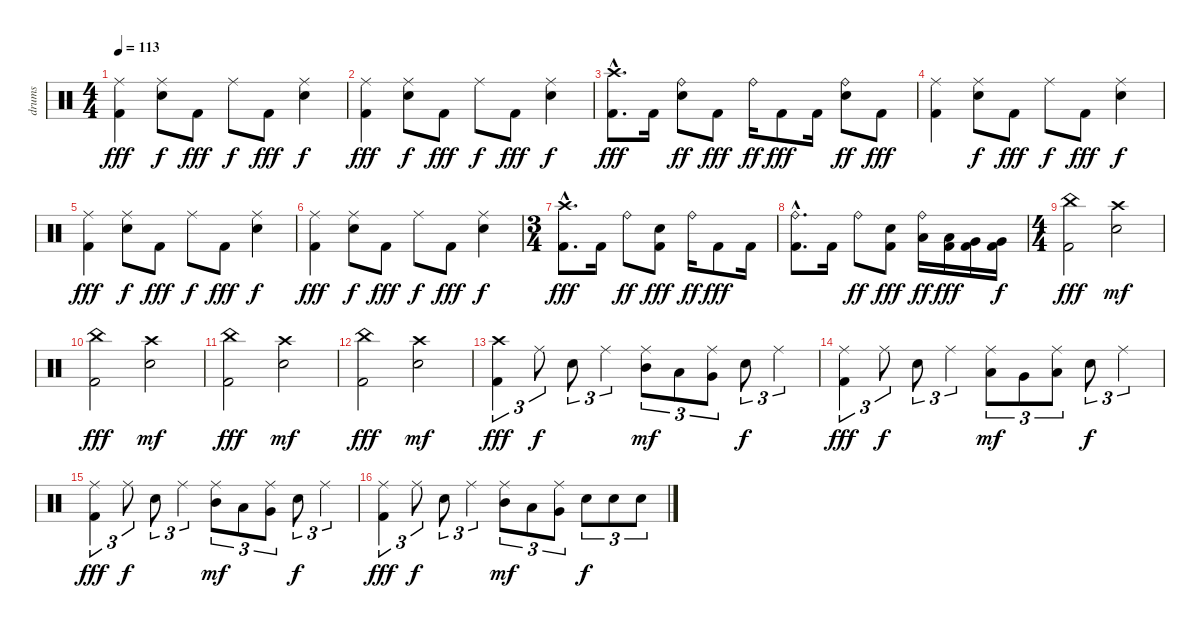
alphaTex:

\track ("drums" "drums") {instrument percussion}
\staff {score}
\articulation defaults
\ts (4 4)
\tempo 113
\clef neutral
\ks c
("Ride (middle)" "Kick (hit) 2").4{dy fff} ("Ride (middle)" "Electric Snare (hit)").8{dy f} "Kick (hit) 2".8{dy fff} "Ride (middle)".8{dy f} "Kick (hit) 2".8{dy fff} ("Ride (middle)" "Electric Snare (hit)").4{dy f} |
("Ride (middle)" "Kick (hit) 2").4{dy fff} ("Ride (middle)" "Electric Snare (hit)").8{dy f} "Kick (hit) 2".8{dy fff} "Ride (middle)".8{dy f} "Kick (hit) 2".8{dy fff} ("Ride (middle)" "Electric Snare (hit)").4{dy f} |
("Crash high (hit)"{hac} "Kick (hit) 2"{hac}).8{d dy fff} "Kick (hit) 2".16 ("Ride (bell)" "Electric Snare (hit)").8{dy ff} "Kick (hit) 2".8{dy fff} "Ride (bell)".16{dy ff} "Kick (hit) 2".8{dy fff} "Kick (hit) 2".16 ("Ride (bell)" "Electric Snare (hit)").8{dy ff} "Kick (hit) 2".8{dy fff} |
("Ride (middle)" "Kick (hit) 2").4 ("Ride (middle)" "Electric Snare (hit)").8{dy f} "Kick (hit) 2".8{dy fff} "Ride (middle)".8{dy f} "Kick (hit) 2".8{dy fff} ("Ride (middle)" "Electric Snare (hit)").4{dy f} |
("Ride (middle)" "Kick (hit) 2").4{dy fff} ("Ride (middle)" "Electric Snare (hit)").8{dy f} "Kick (hit) 2".8{dy fff} "Ride (middle)".8{dy f} "Kick (hit) 2".8{dy fff} ("Ride (middle)" "Electric Snare (hit)").4{dy f} |
("Ride (middle)" "Kick (hit) 2").4{dy fff} ("Ride (middle)" "Electric Snare (hit)").8{dy f} "Kick (hit) 2".8{dy fff} "Ride (middle)".8{dy f} "Kick (hit) 2".8{dy fff} ("Ride (middle)" "Electric Snare (hit)").4{dy f} |
\ts (3 4)
("Crash high (hit)"{hac} "Kick (hit) 2"{hac}).8{d dy fff} "Kick (hit) 2".16 "Ride (bell)".8{dy ff} ("Electric Snare (hit)" "Kick (hit) 2").8{dy fff} "Ride (bell)".16{dy ff} "Kick (hit) 2".8{dy fff} "Kick (hit) 2".16 |
("Ride (bell)"{hac} "Kick (hit) 2"{hac}).8{d} "Kick (hit) 2".16 "Ride (bell)".8{dy ff} ("Electric Snare (hit)" "Kick (hit) 2").8{dy fff} ("Ride (bell)" "Low Tom (hit)").16{dy ff} ("Low Tom (hit)" "Kick (hit) 2").16{dy fff} ("Very Low Tom (hit)" "Kick (hit) 2").16 ("Very Low Tom (hit)" "Kick (hit) 2").16{dy f} |
\ts (4 4)
("China (hit)" "Kick (hit) 2").2{dy fff} ("Crash high (hit)" "Electric Snare (hit)").2{dy mf} |
("China (hit)" "Kick (hit) 2").2{dy fff} ("Crash high (hit)" "Electric Snare (hit)").2{dy mf} |
("China (hit)" "Kick (hit) 2").2{dy fff} ("Crash high (hit)" "Electric Snare (hit)").2{dy mf} |
("China (hit)" "Kick (hit) 2").2{dy fff} ("Crash high (hit)" "Electric Snare (hit)").2{dy mf} |
("Crash high (hit)" "Kick (hit) 2").4{tu (3 2) dy fff} "Ride (middle)".8{tu (3 2) dy f} "Electric Snare (hit)".8{tu (3 2)} "Ride (middle)".4{tu (3 2)} ("Ride (middle)" "Mid Tom (hit)").8{tu (3 2) dy mf} "Low Tom (hit)".8{tu (3 2)} ("Ride (middle)" "Very Low Tom (hit)").8{tu (3 2)} "Electric Snare (hit)".8{tu (3 2) dy f} "Ride (middle)".4{tu (3 2)} |
("Ride (middle)" "Kick (hit) 2").4{tu (3 2) dy fff} "Ride (middle)".8{tu (3 2) dy f} "Electric Snare (hit)".8{tu (3 2)} "Ride (middle)".4{tu (3 2)} ("Ride (middle)" "Low Tom (hit)").8{tu (3 2) dy mf} "Very Low Tom (hit)".8{tu (3 2)} ("Ride (middle)" "Low Floor Tom (hit)").8{tu (3 2)} "Electric Snare (hit)".8{tu (3 2) dy f} "Ride (middle)".4{tu (3 2)} |
("Ride (middle)" "Kick (hit) 2").4{tu (3 2) dy fff} "Ride (middle)".8{tu (3 2) dy f} "Electric Snare (hit)".8{tu (3 2)} "Ride (middle)".4{tu (3 2)} ("Ride (middle)" "Mid Tom (hit)").8{tu (3 2) dy mf} "Low Tom (hit)".8{tu (3 2)} ("Ride (middle)" "Very Low Tom (hit)").8{tu (3 2)} "Electric Snare (hit)".8{tu (3 2) dy f} "Ride (middle)".4{tu (3 2)} |
("Ride (middle)" "Kick (hit) 2").4{tu (3 2) dy fff} "Ride (middle)".8{tu (3 2) dy f} "Electric Snare (hit)".8{tu (3 2)} "Ride (middle)".4{tu (3 2)} ("Ride (middle)" "Mid Tom (hit)").8{tu (3 2) dy mf} "Low Tom (hit)".8{tu (3 2)} ("Ride (middle)" "Very Low Tom (hit)").8{tu (3 2)} "Electric Snare (hit)".8{tu (3 2) dy f} "Electric Snare (hit)".8{tu (3 2)} "Electric Snare (hit)".8{tu (3 2)}
